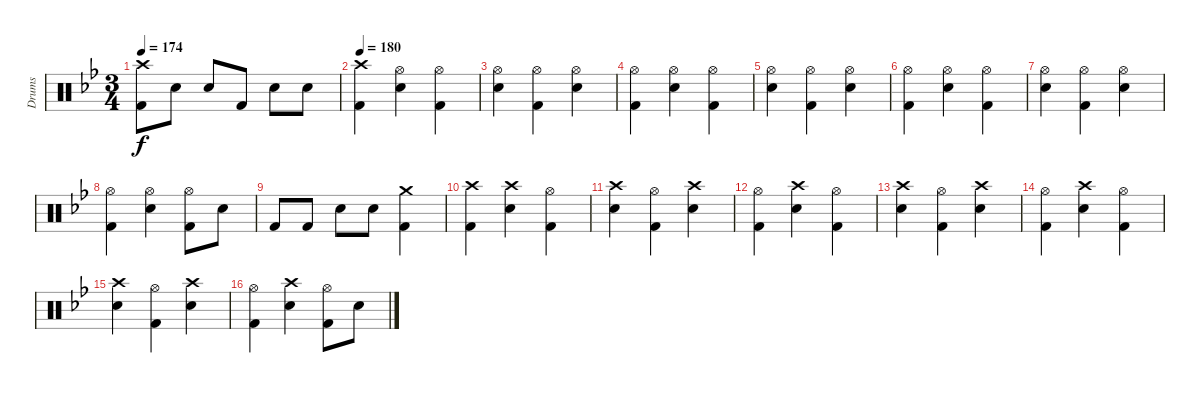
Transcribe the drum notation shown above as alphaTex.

\bracketExtendMode groupsimilarinstruments
\track ("Drumkit" "Drums") {instrument percussion}
\staff {score}
\articulation defaults
\ts (3 4)
\tempo 174
\clef neutral
\ks bb
("Crash high (hit)"{acc forcenatural} "Kick (hit) 2"{acc forcenatural}).8{dy f} "Snare (hit) 2"{acc forcenatural}.8 "Snare (hit) 2"{acc forcenatural}.8 "Kick (hit) 2"{acc forcenatural}.8 "Snare (hit) 2"{acc forcenatural}.8 "Snare (hit) 2"{acc forcenatural}.8 |
\tempo 180
("Crash high (hit)"{acc forcenatural} "Kick (hit) 2"{acc forcenatural}).4 ("Hi-Hat (open)"{acc forcenatural} "Snare (hit) 2"{acc forcenatural}).4 ("Hi-Hat (open)"{acc forcenatural} "Kick (hit) 2"{acc forcenatural}).4 |
("Hi-Hat (open)"{acc forcenatural} "Snare (hit) 2"{acc forcenatural}).4 ("Hi-Hat (open)"{acc forcenatural} "Kick (hit) 2"{acc forcenatural}).4 ("Hi-Hat (open)"{acc forcenatural} "Snare (hit) 2"{acc forcenatural}).4 |
("Hi-Hat (open)"{acc forcenatural} "Kick (hit) 2"{acc forcenatural}).4 ("Hi-Hat (open)"{acc forcenatural} "Snare (hit) 2"{acc forcenatural}).4 ("Hi-Hat (open)"{acc forcenatural} "Kick (hit) 2"{acc forcenatural}).4 |
("Hi-Hat (open)"{acc forcenatural} "Snare (hit) 2"{acc forcenatural}).4 ("Hi-Hat (open)"{acc forcenatural} "Kick (hit) 2"{acc forcenatural}).4 ("Hi-Hat (open)"{acc forcenatural} "Snare (hit) 2"{acc forcenatural}).4 |
("Hi-Hat (open)"{acc forcenatural} "Kick (hit) 2"{acc forcenatural}).4 ("Hi-Hat (open)"{acc forcenatural} "Snare (hit) 2"{acc forcenatural}).4 ("Hi-Hat (open)"{acc forcenatural} "Kick (hit) 2"{acc forcenatural}).4 |
("Hi-Hat (open)"{acc forcenatural} "Snare (hit) 2"{acc forcenatural}).4 ("Hi-Hat (open)"{acc forcenatural} "Kick (hit) 2"{acc forcenatural}).4 ("Hi-Hat (open)"{acc forcenatural} "Snare (hit) 2"{acc forcenatural}).4 |
("Hi-Hat (open)"{acc forcenatural} "Kick (hit) 2"{acc forcenatural}).4 ("Hi-Hat (open)"{acc forcenatural} "Snare (hit) 2"{acc forcenatural}).4 ("Hi-Hat (open)"{acc forcenatural} "Kick (hit) 2"{acc forcenatural}).8 "Snare (hit) 2"{acc forcenatural}.8 |
"Kick (hit) 2"{acc forcenatural}.8 "Kick (hit) 2"{acc forcenatural}.8 "Snare (hit) 2"{acc forcenatural}.8 "Snare (hit) 2"{acc forcenatural}.8 ("Crash medium (hit)"{acc forcenatural} "Kick (hit) 2"{acc forcenatural}).4 |
("Crash high (hit)"{acc forcenatural} "Kick (hit) 2"{acc forcenatural}).4 ("Crash high (hit)"{acc forcenatural} "Snare (hit) 2"{acc forcenatural}).4 ("Hi-Hat (open)"{acc forcenatural} "Kick (hit) 2"{acc forcenatural}).4 |
("Crash high (hit)"{acc forcenatural} "Snare (hit) 2"{acc forcenatural}).4 ("Hi-Hat (open)"{acc forcenatural} "Kick (hit) 2"{acc forcenatural}).4 ("Crash high (hit)"{acc forcenatural} "Snare (hit) 2"{acc forcenatural}).4 |
("Hi-Hat (open)"{acc forcenatural} "Kick (hit) 2"{acc forcenatural}).4 ("Crash high (hit)"{acc forcenatural} "Snare (hit) 2"{acc forcenatural}).4 ("Hi-Hat (open)"{acc forcenatural} "Kick (hit) 2"{acc forcenatural}).4 |
("Crash high (hit)"{acc forcenatural} "Snare (hit) 2"{acc forcenatural}).4 ("Hi-Hat (open)"{acc forcenatural} "Kick (hit) 2"{acc forcenatural}).4 ("Crash high (hit)"{acc forcenatural} "Snare (hit) 2"{acc forcenatural}).4 |
("Hi-Hat (open)"{acc forcenatural} "Kick (hit) 2"{acc forcenatural}).4 ("Crash high (hit)"{acc forcenatural} "Snare (hit) 2"{acc forcenatural}).4 ("Hi-Hat (open)"{acc forcenatural} "Kick (hit) 2"{acc forcenatural}).4 |
("Crash high (hit)"{acc forcenatural} "Snare (hit) 2"{acc forcenatural}).4 ("Hi-Hat (open)"{acc forcenatural} "Kick (hit) 2"{acc forcenatural}).4 ("Crash high (hit)"{acc forcenatural} "Snare (hit) 2"{acc forcenatural}).4 |
("Hi-Hat (open)"{acc forcenatural} "Kick (hit) 2"{acc forcenatural}).4 ("Crash high (hit)"{acc forcenatural} "Snare (hit) 2"{acc forcenatural}).4 ("Hi-Hat (open)"{acc forcenatural} "Kick (hit) 2"{acc forcenatural}).8 "Snare (hit) 2"{acc forcenatural}.8
